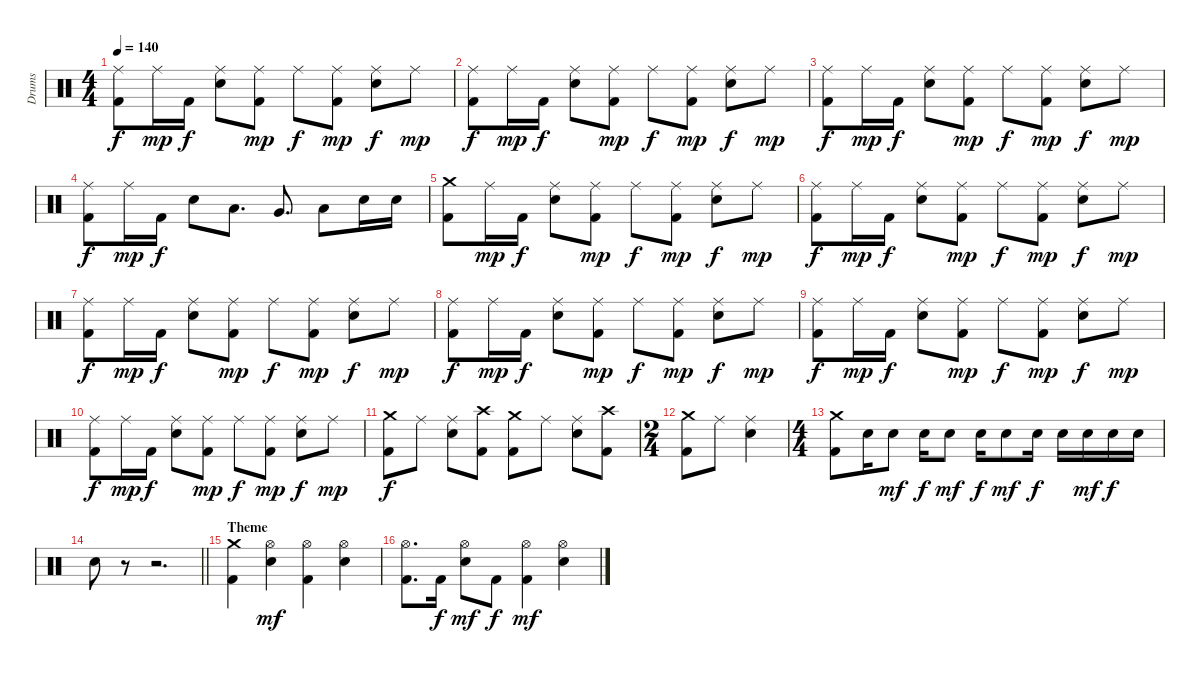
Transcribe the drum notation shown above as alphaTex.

\track ("Drums" "Drums") {instrument percussion}
\staff {score}
\articulation defaults
\ts (4 4)
\tempo 140
\clef neutral
\ks c
("Kick (hit) 2" "Ride (middle)").8{dy f} "Ride (middle)".16{dy mp} "Kick (hit) 2".16{dy f} ("Ride (middle)" "Electric Snare (hit)").8 ("Kick (hit) 2" "Ride (middle)").8{dy mp} "Ride (middle)".8{dy f} ("Kick (hit) 2" "Ride (middle)").8{dy mp} ("Ride (middle)" "Electric Snare (hit)").8{dy f} "Ride (middle)".8{dy mp} |
("Kick (hit) 2" "Ride (middle)").8{dy f} "Ride (middle)".16{dy mp} "Kick (hit) 2".16{dy f} ("Ride (middle)" "Electric Snare (hit)").8 ("Kick (hit) 2" "Ride (middle)").8{dy mp} "Ride (middle)".8{dy f} ("Kick (hit) 2" "Ride (middle)").8{dy mp} ("Ride (middle)" "Electric Snare (hit)").8{dy f} "Ride (middle)".8{dy mp} |
("Kick (hit) 2" "Ride (middle)").8{dy f} "Ride (middle)".16{dy mp} "Kick (hit) 2".16{dy f} ("Ride (middle)" "Electric Snare (hit)").8 ("Kick (hit) 2" "Ride (middle)").8{dy mp} "Ride (middle)".8{dy f} ("Kick (hit) 2" "Ride (middle)").8{dy mp} ("Ride (middle)" "Electric Snare (hit)").8{dy f} "Ride (middle)".8{dy mp} |
("Kick (hit) 2" "Ride (middle)").8{dy f} "Ride (middle)".16{dy mp} "Kick (hit) 2".16{dy f} "Electric Snare (hit)".8 "Low Tom (hit)".8{d} "Very Low Tom (hit)".8{d} "Low Floor Tom (hit)".8 "Electric Snare (hit)".16 "Electric Snare (hit)".16 |
("Kick (hit) 2" "Crash medium (hit)").8 "Ride (middle)".16{dy mp} "Kick (hit) 2".16{dy f} ("Ride (middle)" "Electric Snare (hit)").8 ("Kick (hit) 2" "Ride (middle)").8{dy mp} "Ride (middle)".8{dy f} ("Kick (hit) 2" "Ride (middle)").8{dy mp} ("Ride (middle)" "Electric Snare (hit)").8{dy f} "Ride (middle)".8{dy mp} |
("Kick (hit) 2" "Ride (middle)").8{dy f} "Ride (middle)".16{dy mp} "Kick (hit) 2".16{dy f} ("Ride (middle)" "Electric Snare (hit)").8 ("Kick (hit) 2" "Ride (middle)").8{dy mp} "Ride (middle)".8{dy f} ("Kick (hit) 2" "Ride (middle)").8{dy mp} ("Ride (middle)" "Electric Snare (hit)").8{dy f} "Ride (middle)".8{dy mp} |
("Kick (hit) 2" "Ride (middle)").8{dy f} "Ride (middle)".16{dy mp} "Kick (hit) 2".16{dy f} ("Ride (middle)" "Electric Snare (hit)").8 ("Kick (hit) 2" "Ride (middle)").8{dy mp} "Ride (middle)".8{dy f} ("Kick (hit) 2" "Ride (middle)").8{dy mp} ("Ride (middle)" "Electric Snare (hit)").8{dy f} "Ride (middle)".8{dy mp} |
("Kick (hit) 2" "Ride (middle)").8{dy f} "Ride (middle)".16{dy mp} "Kick (hit) 2".16{dy f} ("Ride (middle)" "Electric Snare (hit)").8 ("Kick (hit) 2" "Ride (middle)").8{dy mp} "Ride (middle)".8{dy f} ("Kick (hit) 2" "Ride (middle)").8{dy mp} ("Ride (middle)" "Electric Snare (hit)").8{dy f} "Ride (middle)".8{dy mp} |
("Kick (hit) 2" "Ride (middle)").8{dy f} "Ride (middle)".16{dy mp} "Kick (hit) 2".16{dy f} ("Ride (middle)" "Electric Snare (hit)").8 ("Kick (hit) 2" "Ride (middle)").8{dy mp} "Ride (middle)".8{dy f} ("Kick (hit) 2" "Ride (middle)").8{dy mp} ("Ride (middle)" "Electric Snare (hit)").8{dy f} "Ride (middle)".8{dy mp} |
("Kick (hit) 2" "Ride (middle)").8{dy f} "Ride (middle)".16{dy mp} "Kick (hit) 2".16{dy f} ("Ride (middle)" "Electric Snare (hit)").8 ("Kick (hit) 2" "Ride (middle)").8{dy mp} "Ride (middle)".8{dy f} ("Kick (hit) 2" "Ride (middle)").8{dy mp} ("Ride (middle)" "Electric Snare (hit)").8{dy f} "Ride (middle)".8{dy mp} |
("Kick (hit) 2" "Crash medium (hit)").8{dy f} "Ride (middle)".8 ("Ride (middle)" "Electric Snare (hit)").8 ("Kick (hit) 2" "Crash high (hit)").8 ("Kick (hit) 2" "Crash medium (hit)").8 "Ride (middle)".8 ("Ride (middle)" "Electric Snare (hit)").8 ("Kick (hit) 2" "Crash high (hit)").8 |
\ts (2 4)
("Kick (hit) 2" "Crash medium (hit)").8 "Ride (middle)".8 ("Ride (middle)" "Electric Snare (hit)").4 |
\ts (4 4)
("Kick (hit) 2" "Crash medium (hit)").8 "Electric Snare (hit)".16 "Electric Snare (hit)".8{dy mf} "Electric Snare (hit)".16{dy f} "Electric Snare (hit)".8{dy mf} "Electric Snare (hit)".16{dy f} "Electric Snare (hit)".8{dy mf} "Electric Snare (hit)".16{dy f} "Electric Snare (hit)".16 "Electric Snare (hit)".16{dy mf} "Electric Snare (hit)".16{dy f} "Electric Snare (hit)".16 |
\barLineRight lightlight "Electric Snare (hit)".8
r.8 r.2{d} |
\section ("" "Theme")
("Kick (hit) 2" "Crash medium (hit)").4 ("Hi-Hat (open)" "Electric Snare (hit)").4{dy mf} ("Kick (hit) 2" "Hi-Hat (open)").4 ("Hi-Hat (open)" "Electric Snare (hit)").4 |
("Kick (hit) 2" "Hi-Hat (open)").8{d} "Kick (hit) 2".16{dy f} ("Hi-Hat (open)" "Electric Snare (hit)").8{dy mf} "Kick (hit) 2".8{dy f} ("Kick (hit) 2" "Hi-Hat (open)").4{dy mf} ("Hi-Hat (open)" "Electric Snare (hit)").4
